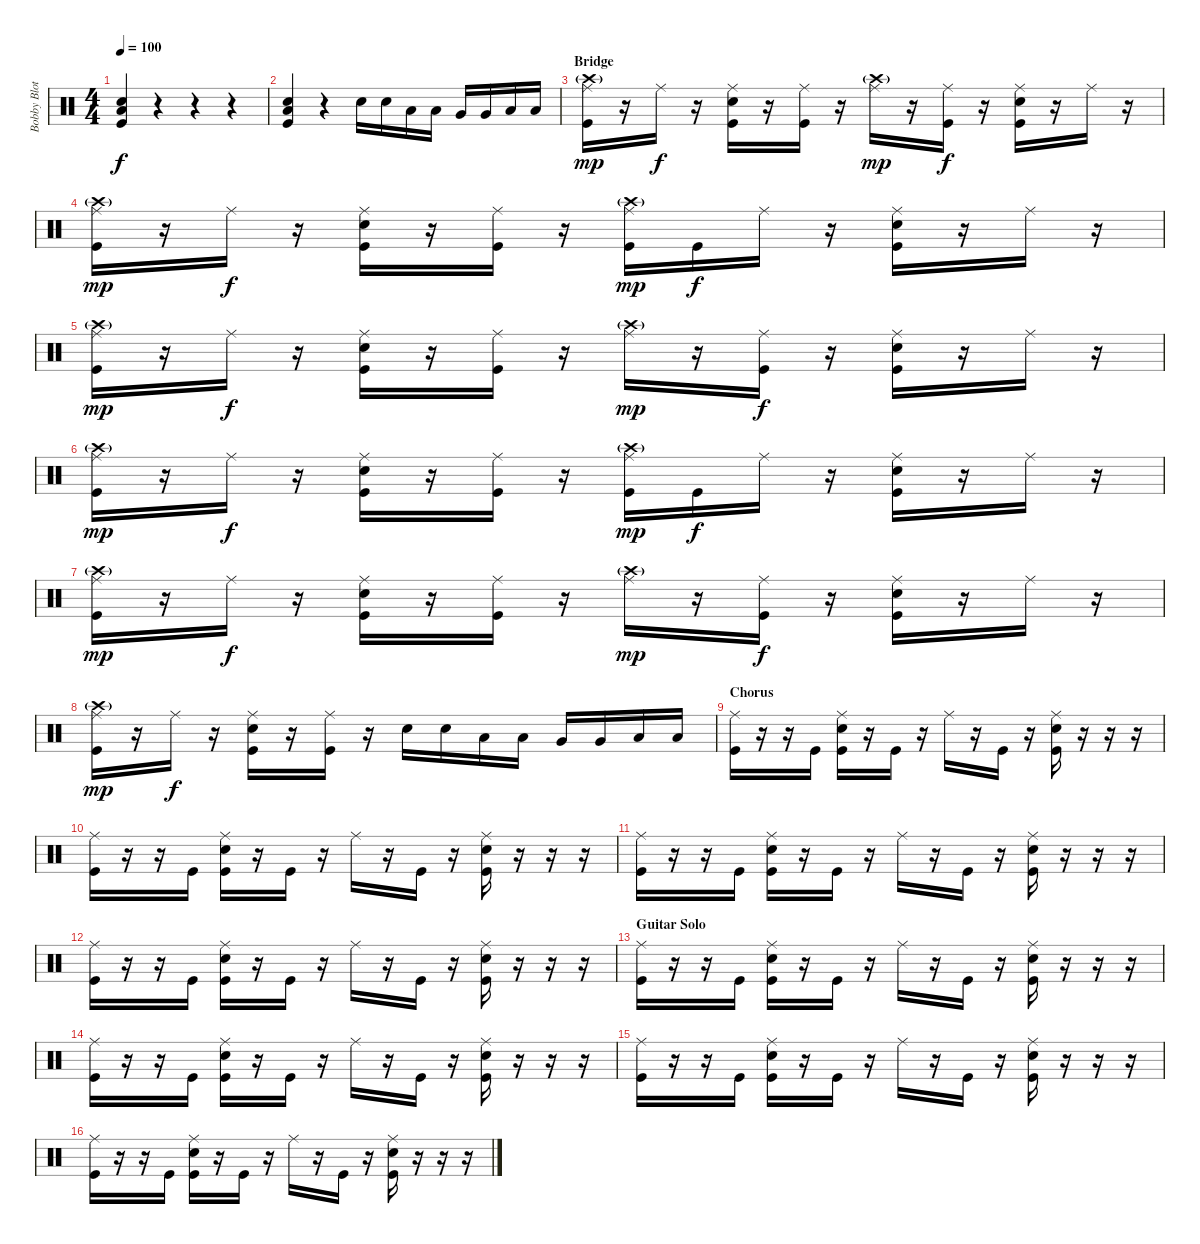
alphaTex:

\track ("Bobby Blotzer - Drums" "Bobby Blot") {instrument percussion}
\staff {score}
\articulation defaults
\ts (4 4)
\tempo 100
\clef neutral
\ks c
("Low Tom (hit)" "Snare (hit) 2" "Kick (hit)").4{dy f} r.4 r.4 r.4 |
("Low Tom (hit)" "Snare (hit) 2" "Kick (hit)").4 r.4 "Snare (hit) 2".16 "Snare (hit) 2".16 "Low Tom (hit)".16 "Low Tom (hit)".16 "Very Low Tom (hit)".16 "Very Low Tom (hit)".16 "Low Floor Tom (hit)".16 "Low Floor Tom (hit)".16 |
\section ("" "Bridge")
("Ride (middle)" "Crash high (hit)"{g} "Kick (hit)").16{dy mp} r.16 "Ride (middle)".16{dy f} r.16 ("Ride (middle)" "Snare (hit) 2" "Kick (hit)").16 r.16 ("Ride (middle)" "Kick (hit)").16 r.16 ("Ride (middle)" "Crash high (hit)"{g}).16{dy mp} r.16 ("Ride (middle)" "Kick (hit)").16{dy f} r.16 ("Ride (middle)" "Snare (hit) 2" "Kick (hit)").16 r.16 "Ride (middle)".16 r.16 |
("Ride (middle)" "Crash high (hit)"{g} "Kick (hit)").16{dy mp} r.16 "Ride (middle)".16{dy f} r.16 ("Ride (middle)" "Snare (hit) 2" "Kick (hit)").16 r.16 ("Ride (middle)" "Kick (hit)").16 r.16 ("Ride (middle)" "Crash high (hit)"{g} "Kick (hit)").16{dy mp} "Kick (hit)".16{dy f} "Ride (middle)".16 r.16 ("Ride (middle)" "Snare (hit) 2" "Kick (hit)").16 r.16 "Ride (middle)".16 r.16 |
("Ride (middle)" "Crash high (hit)"{g} "Kick (hit)").16{dy mp} r.16 "Ride (middle)".16{dy f} r.16 ("Ride (middle)" "Snare (hit) 2" "Kick (hit)").16 r.16 ("Ride (middle)" "Kick (hit)").16 r.16 ("Ride (middle)" "Crash high (hit)"{g}).16{dy mp} r.16 ("Ride (middle)" "Kick (hit)").16{dy f} r.16 ("Ride (middle)" "Snare (hit) 2" "Kick (hit)").16 r.16 "Ride (middle)".16 r.16 |
("Ride (middle)" "Crash high (hit)"{g} "Kick (hit)").16{dy mp} r.16 "Ride (middle)".16{dy f} r.16 ("Ride (middle)" "Snare (hit) 2" "Kick (hit)").16 r.16 ("Ride (middle)" "Kick (hit)").16 r.16 ("Ride (middle)" "Crash high (hit)"{g} "Kick (hit)").16{dy mp} "Kick (hit)".16{dy f} "Ride (middle)".16 r.16 ("Ride (middle)" "Snare (hit) 2" "Kick (hit)").16 r.16 "Ride (middle)".16 r.16 |
("Ride (middle)" "Crash high (hit)"{g} "Kick (hit)").16{dy mp} r.16 "Ride (middle)".16{dy f} r.16 ("Ride (middle)" "Snare (hit) 2" "Kick (hit)").16 r.16 ("Ride (middle)" "Kick (hit)").16 r.16 ("Ride (middle)" "Crash high (hit)"{g}).16{dy mp} r.16 ("Ride (middle)" "Kick (hit)").16{dy f} r.16 ("Ride (middle)" "Snare (hit) 2" "Kick (hit)").16 r.16 "Ride (middle)".16 r.16 |
("Ride (middle)" "Crash high (hit)"{g} "Kick (hit)").16{dy mp} r.16 "Ride (middle)".16{dy f} r.16 ("Ride (middle)" "Snare (hit) 2" "Kick (hit)").16 r.16 ("Ride (middle)" "Kick (hit)").16 r.16 "Snare (hit) 2".16 "Snare (hit) 2".16 "Low Tom (hit)".16 "Low Tom (hit)".16 "Very Low Tom (hit)".16 "Very Low Tom (hit)".16 "Low Floor Tom (hit)".16 "Low Floor Tom (hit)".16 |
\section ("" "Chorus")
("Ride (middle)" "Kick (hit)").16 r.16 r.16 "Kick (hit)".16 ("Ride (middle)" "Snare (hit) 2" "Kick (hit)").16 r.16 "Kick (hit)".16 r.16 "Ride (middle)".16 r.16 "Kick (hit)".16 r.16 ("Ride (middle)" "Snare (hit) 2" "Kick (hit)").16 r.16 r.16 r.16 |
("Ride (middle)" "Kick (hit)").16 r.16 r.16 "Kick (hit)".16 ("Ride (middle)" "Snare (hit) 2" "Kick (hit)").16 r.16 "Kick (hit)".16 r.16 "Ride (middle)".16 r.16 "Kick (hit)".16 r.16 ("Ride (middle)" "Snare (hit) 2" "Kick (hit)").16 r.16 r.16 r.16 |
("Ride (middle)" "Kick (hit)").16 r.16 r.16 "Kick (hit)".16 ("Ride (middle)" "Snare (hit) 2" "Kick (hit)").16 r.16 "Kick (hit)".16 r.16 "Ride (middle)".16 r.16 "Kick (hit)".16 r.16 ("Ride (middle)" "Snare (hit) 2" "Kick (hit)").16 r.16 r.16 r.16 |
("Ride (middle)" "Kick (hit)").16 r.16 r.16 "Kick (hit)".16 ("Ride (middle)" "Snare (hit) 2" "Kick (hit)").16 r.16 "Kick (hit)".16 r.16 "Ride (middle)".16 r.16 "Kick (hit)".16 r.16 ("Ride (middle)" "Snare (hit) 2" "Kick (hit)").16 r.16 r.16 r.16 |
\section ("" "Guitar Solo")
("Ride (middle)" "Kick (hit)").16 r.16 r.16 "Kick (hit)".16 ("Ride (middle)" "Snare (hit) 2" "Kick (hit)").16 r.16 "Kick (hit)".16 r.16 "Ride (middle)".16 r.16 "Kick (hit)".16 r.16 ("Ride (middle)" "Snare (hit) 2" "Kick (hit)").16 r.16 r.16 r.16 |
("Ride (middle)" "Kick (hit)").16 r.16 r.16 "Kick (hit)".16 ("Ride (middle)" "Snare (hit) 2" "Kick (hit)").16 r.16 "Kick (hit)".16 r.16 "Ride (middle)".16 r.16 "Kick (hit)".16 r.16 ("Ride (middle)" "Snare (hit) 2" "Kick (hit)").16 r.16 r.16 r.16 |
("Ride (middle)" "Kick (hit)").16 r.16 r.16 "Kick (hit)".16 ("Ride (middle)" "Snare (hit) 2" "Kick (hit)").16 r.16 "Kick (hit)".16 r.16 "Ride (middle)".16 r.16 "Kick (hit)".16 r.16 ("Ride (middle)" "Snare (hit) 2" "Kick (hit)").16 r.16 r.16 r.16 |
("Ride (middle)" "Kick (hit)").16 r.16 r.16 "Kick (hit)".16 ("Ride (middle)" "Snare (hit) 2" "Kick (hit)").16 r.16 "Kick (hit)".16 r.16 "Ride (middle)".16 r.16 "Kick (hit)".16 r.16 ("Ride (middle)" "Snare (hit) 2" "Kick (hit)").16 r.16 r.16 r.16
